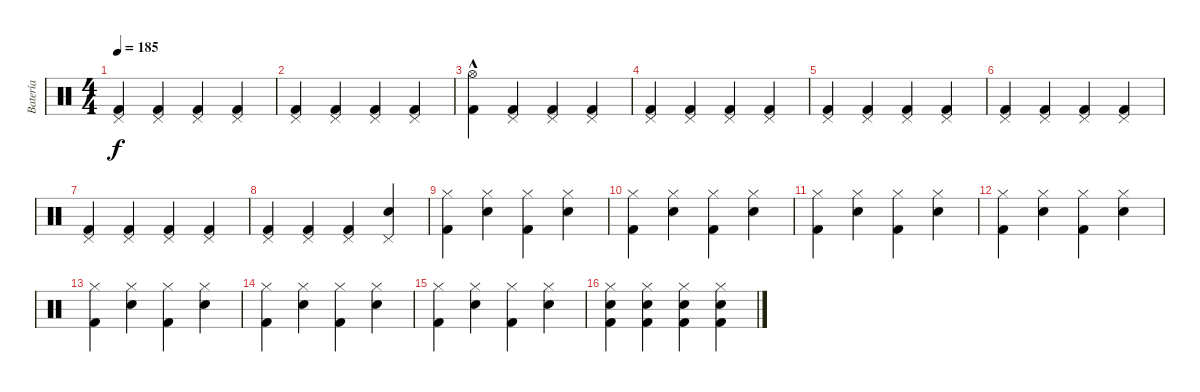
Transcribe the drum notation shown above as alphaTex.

\track ("Batería" "Batería") {instrument percussion}
\staff {score}
\articulation defaults
\ts (4 4)
\tempo 185
\clef neutral
\ks c
("Pedal Hi-Hat (hit)" "Kick (hit) 2").4{dy f} ("Pedal Hi-Hat (hit)" "Kick (hit) 2").4 ("Pedal Hi-Hat (hit)" "Kick (hit) 2").4 ("Pedal Hi-Hat (hit)" "Kick (hit) 2").4 |
("Pedal Hi-Hat (hit)" "Kick (hit) 2").4 ("Pedal Hi-Hat (hit)" "Kick (hit) 2").4 ("Pedal Hi-Hat (hit)" "Kick (hit) 2").4 ("Pedal Hi-Hat (hit)" "Kick (hit) 2").4 |
("Hi-Hat (open)"{hac} "Kick (hit) 2").4 ("Pedal Hi-Hat (hit)" "Kick (hit) 2").4 ("Pedal Hi-Hat (hit)" "Kick (hit) 2").4 ("Pedal Hi-Hat (hit)" "Kick (hit) 2").4 |
("Pedal Hi-Hat (hit)" "Kick (hit) 2").4 ("Pedal Hi-Hat (hit)" "Kick (hit) 2").4 ("Pedal Hi-Hat (hit)" "Kick (hit) 2").4 ("Pedal Hi-Hat (hit)" "Kick (hit) 2").4 |
("Pedal Hi-Hat (hit)" "Kick (hit) 2").4 ("Pedal Hi-Hat (hit)" "Kick (hit) 2").4 ("Pedal Hi-Hat (hit)" "Kick (hit) 2").4 ("Pedal Hi-Hat (hit)" "Kick (hit) 2").4 |
("Pedal Hi-Hat (hit)" "Kick (hit) 2").4 ("Pedal Hi-Hat (hit)" "Kick (hit) 2").4 ("Pedal Hi-Hat (hit)" "Kick (hit) 2").4 ("Pedal Hi-Hat (hit)" "Kick (hit) 2").4 |
("Pedal Hi-Hat (hit)" "Kick (hit) 2").4 ("Pedal Hi-Hat (hit)" "Kick (hit) 2").4 ("Pedal Hi-Hat (hit)" "Kick (hit) 2").4 ("Pedal Hi-Hat (hit)" "Kick (hit) 2").4 |
("Pedal Hi-Hat (hit)" "Kick (hit) 2").4 ("Pedal Hi-Hat (hit)" "Kick (hit) 2").4 ("Pedal Hi-Hat (hit)" "Kick (hit) 2").4 ("Pedal Hi-Hat (hit)" "Snare (hit) 2").4 |
("Hi-Hat (closed)" "Kick (hit) 2").4 ("Hi-Hat (closed)" "Snare (hit) 2").4 ("Hi-Hat (closed)" "Kick (hit) 2").4 ("Hi-Hat (closed)" "Snare (hit) 2").4 |
("Hi-Hat (closed)" "Kick (hit) 2").4 ("Hi-Hat (closed)" "Snare (hit) 2").4 ("Hi-Hat (closed)" "Kick (hit) 2").4 ("Hi-Hat (closed)" "Snare (hit) 2").4 |
("Hi-Hat (closed)" "Kick (hit) 2").4 ("Hi-Hat (closed)" "Snare (hit) 2").4 ("Hi-Hat (closed)" "Kick (hit) 2").4 ("Hi-Hat (closed)" "Snare (hit) 2").4 |
("Hi-Hat (closed)" "Kick (hit) 2").4 ("Hi-Hat (closed)" "Snare (hit) 2").4 ("Hi-Hat (closed)" "Kick (hit) 2").4 ("Hi-Hat (closed)" "Snare (hit) 2").4 |
("Hi-Hat (closed)" "Kick (hit) 2").4 ("Hi-Hat (closed)" "Snare (hit) 2").4 ("Hi-Hat (closed)" "Kick (hit) 2").4 ("Hi-Hat (closed)" "Snare (hit) 2").4 |
("Hi-Hat (closed)" "Kick (hit) 2").4 ("Hi-Hat (closed)" "Snare (hit) 2").4 ("Hi-Hat (closed)" "Kick (hit) 2").4 ("Hi-Hat (closed)" "Snare (hit) 2").4 |
("Hi-Hat (closed)" "Kick (hit) 2").4 ("Hi-Hat (closed)" "Snare (hit) 2").4 ("Hi-Hat (closed)" "Kick (hit) 2").4 ("Hi-Hat (closed)" "Snare (hit) 2").4 |
("Kick (hit) 2" "Hi-Hat (closed)" "Snare (hit) 2").4 ("Kick (hit) 2" "Hi-Hat (closed)" "Snare (hit) 2").4 ("Kick (hit) 2" "Hi-Hat (closed)" "Snare (hit) 2").4 ("Kick (hit) 2" "Hi-Hat (closed)" "Snare (hit) 2").4
